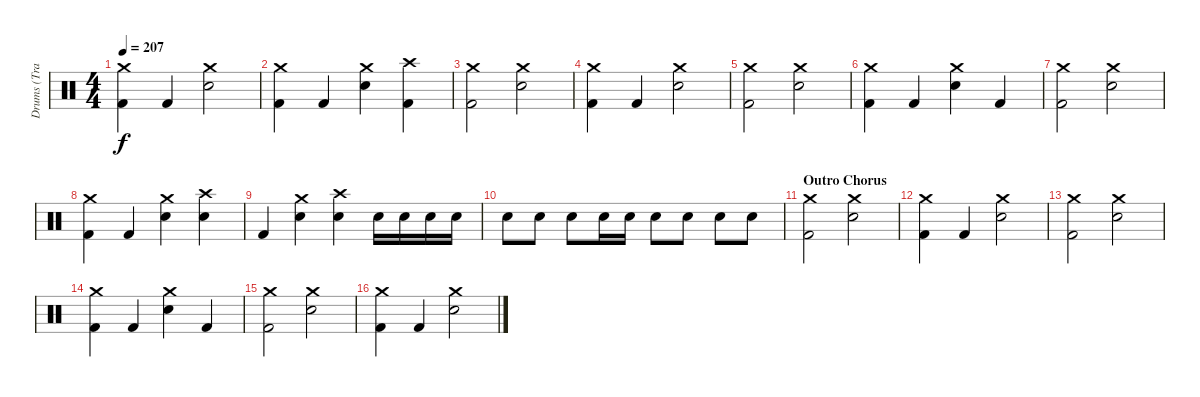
\track ("Drums (Travis)" "Drums (Tra") {instrument percussion}
\staff {score}
\articulation defaults
\ts (4 4)
\tempo 207
\clef neutral
\ks c
("Crash medium (hit)" "Kick (hit) 2").4{dy f} "Kick (hit) 2".4 ("Crash medium (hit)" "Snare (hit) 2").2 |
("Crash medium (hit)" "Kick (hit) 2").4 "Kick (hit) 2".4 ("Crash medium (hit)" "Snare (hit) 2").4 ("Crash high (hit)" "Kick (hit) 2").4 |
("Crash medium (hit)" "Kick (hit) 2").2 ("Crash medium (hit)" "Snare (hit) 2").2 |
("Crash medium (hit)" "Kick (hit) 2").4 "Kick (hit) 2".4 ("Crash medium (hit)" "Snare (hit) 2").2 |
("Crash medium (hit)" "Kick (hit) 2").2 ("Crash medium (hit)" "Snare (hit) 2").2 |
("Crash medium (hit)" "Kick (hit) 2").4 "Kick (hit) 2".4 ("Crash medium (hit)" "Snare (hit) 2").4 "Kick (hit) 2".4 |
("Crash medium (hit)" "Kick (hit) 2").2 ("Crash medium (hit)" "Snare (hit) 2").2 |
("Crash medium (hit)" "Kick (hit) 2").4 "Kick (hit) 2".4 ("Crash medium (hit)" "Snare (hit) 2").4 ("Crash high (hit)" "Snare (hit) 2").4 |
"Kick (hit) 2".4 ("Crash medium (hit)" "Snare (hit) 2").4 ("Crash high (hit)" "Snare (hit) 2").4 "Snare (hit) 2".16 "Snare (hit) 2".16 "Snare (hit) 2".16 "Snare (hit) 2".16 |
"Snare (hit) 2".8 "Snare (hit) 2".8 "Snare (hit) 2".8 "Snare (hit) 2".16 "Snare (hit) 2".16 "Snare (hit) 2".8 "Snare (hit) 2".8 "Snare (hit) 2".8 "Snare (hit) 2".8 |
\section ("" "Outro Chorus")
("Crash medium (hit)" "Kick (hit) 2").2 ("Crash medium (hit)" "Snare (hit) 2").2 |
("Crash medium (hit)" "Kick (hit) 2").4 "Kick (hit) 2".4 ("Crash medium (hit)" "Snare (hit) 2").2 |
("Crash medium (hit)" "Kick (hit) 2").2 ("Crash medium (hit)" "Snare (hit) 2").2 |
("Crash medium (hit)" "Kick (hit) 2").4 "Kick (hit) 2".4 ("Crash medium (hit)" "Snare (hit) 2").4 "Kick (hit) 2".4 |
("Crash medium (hit)" "Kick (hit) 2").2 ("Crash medium (hit)" "Snare (hit) 2").2 |
("Crash medium (hit)" "Kick (hit) 2").4 "Kick (hit) 2".4 ("Crash medium (hit)" "Snare (hit) 2").2
